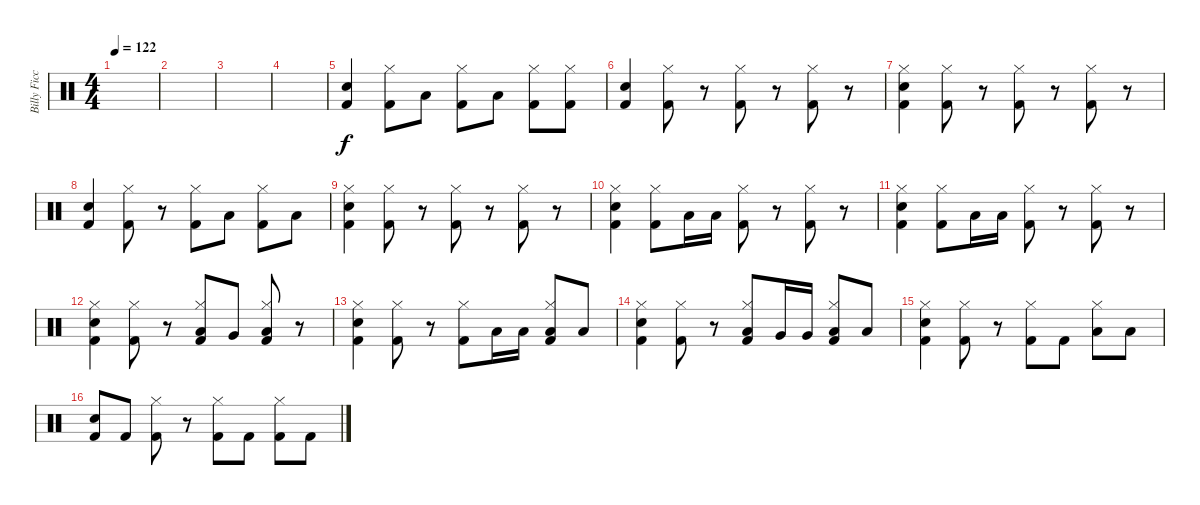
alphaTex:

\track ("Billy Ficca" "Billy Ficc") {instrument percussion}
\staff {score}
\articulation defaults
\ts (4 4)
\tempo 122
\clef neutral
\ks c
|
|
|
|
("Electric Snare (hit)" "Kick (hit) 2").4 ("Hi-Hat (closed)" "Kick (hit) 2").8 "Low Floor Tom (hit)".8 ("Hi-Hat (closed)" "Kick (hit) 2").8 "Low Floor Tom (hit)".8 ("Hi-Hat (closed)" "Kick (hit) 2").8 ("Hi-Hat (closed)" "Kick (hit) 2").8 |
("Electric Snare (hit)" "Kick (hit) 2").4 ("Hi-Hat (closed)" "Kick (hit) 2").8 r.8 ("Hi-Hat (closed)" "Kick (hit) 2").8 r.8 ("Hi-Hat (closed)" "Kick (hit) 2").8 r.8 |
("Hi-Hat (closed)" "Electric Snare (hit)" "Kick (hit) 2").4 ("Hi-Hat (closed)" "Kick (hit) 2").8 r.8 ("Hi-Hat (closed)" "Kick (hit) 2").8 r.8 ("Hi-Hat (closed)" "Kick (hit) 2").8 r.8 |
("Electric Snare (hit)" "Kick (hit) 2").4 ("Hi-Hat (closed)" "Kick (hit) 2").8 r.8 ("Hi-Hat (closed)" "Kick (hit) 2").8 "Low Floor Tom (hit)".8 ("Hi-Hat (closed)" "Kick (hit) 2").8 "Low Floor Tom (hit)".8 |
("Hi-Hat (closed)" "Electric Snare (hit)" "Kick (hit) 2").4 ("Hi-Hat (closed)" "Kick (hit) 2").8 r.8 ("Hi-Hat (closed)" "Kick (hit) 2").8 r.8 ("Hi-Hat (closed)" "Kick (hit) 2").8 r.8 |
("Hi-Hat (closed)" "Electric Snare (hit)" "Kick (hit) 2").4 ("Hi-Hat (closed)" "Kick (hit) 2").8 "Low Floor Tom (hit)".16 "Low Floor Tom (hit)".16 ("Hi-Hat (closed)" "Kick (hit) 2").8 r.8 ("Hi-Hat (closed)" "Kick (hit) 2").8 r.8 |
("Hi-Hat (closed)" "Electric Snare (hit)" "Kick (hit) 2").4 ("Hi-Hat (closed)" "Kick (hit) 2").8 "Low Floor Tom (hit)".16 "Low Floor Tom (hit)".16 ("Hi-Hat (closed)" "Kick (hit) 2").8 r.8 ("Hi-Hat (closed)" "Kick (hit) 2").8 r.8 |
("Hi-Hat (closed)" "Electric Snare (hit)" "Kick (hit) 2").4 ("Hi-Hat (closed)" "Kick (hit) 2").8 r.8 ("Hi-Hat (closed)" "Low Floor Tom (hit)" "Kick (hit) 2").8 "Very Low Tom (hit)".8 ("Hi-Hat (closed)" "Low Floor Tom (hit)" "Kick (hit) 2").8 r.8 |
("Hi-Hat (closed)" "Electric Snare (hit)" "Kick (hit) 2").4 ("Hi-Hat (closed)" "Kick (hit) 2").8 r.8 ("Hi-Hat (closed)" "Kick (hit) 2").8 "Low Floor Tom (hit)".16 "Low Floor Tom (hit)".16 ("Hi-Hat (closed)" "Low Floor Tom (hit)" "Kick (hit) 2").8 "Low Floor Tom (hit)".8 |
("Hi-Hat (closed)" "Electric Snare (hit)" "Kick (hit) 2").4 ("Hi-Hat (closed)" "Kick (hit) 2").8 r.8 ("Hi-Hat (closed)" "Low Floor Tom (hit)" "Kick (hit) 2").8 "Very Low Tom (hit)".16 "Very Low Tom (hit)".16 ("Hi-Hat (closed)" "Low Floor Tom (hit)" "Kick (hit) 2").8 "Low Floor Tom (hit)".8 |
("Hi-Hat (closed)" "Electric Snare (hit)" "Kick (hit) 2").4 ("Hi-Hat (closed)" "Kick (hit) 2").8 r.8 ("Hi-Hat (closed)" "Kick (hit) 2").8 "Kick (hit) 2".8 ("Hi-Hat (closed)" "Low Floor Tom (hit)").8 "Low Floor Tom (hit)".8 |
("Electric Snare (hit)" "Kick (hit) 2").8 "Kick (hit) 2".8 ("Hi-Hat (closed)" "Kick (hit) 2").8 r.8 ("Hi-Hat (closed)" "Kick (hit) 2").8 "Kick (hit) 2".8 ("Hi-Hat (closed)" "Kick (hit) 2").8 "Kick (hit) 2".8
